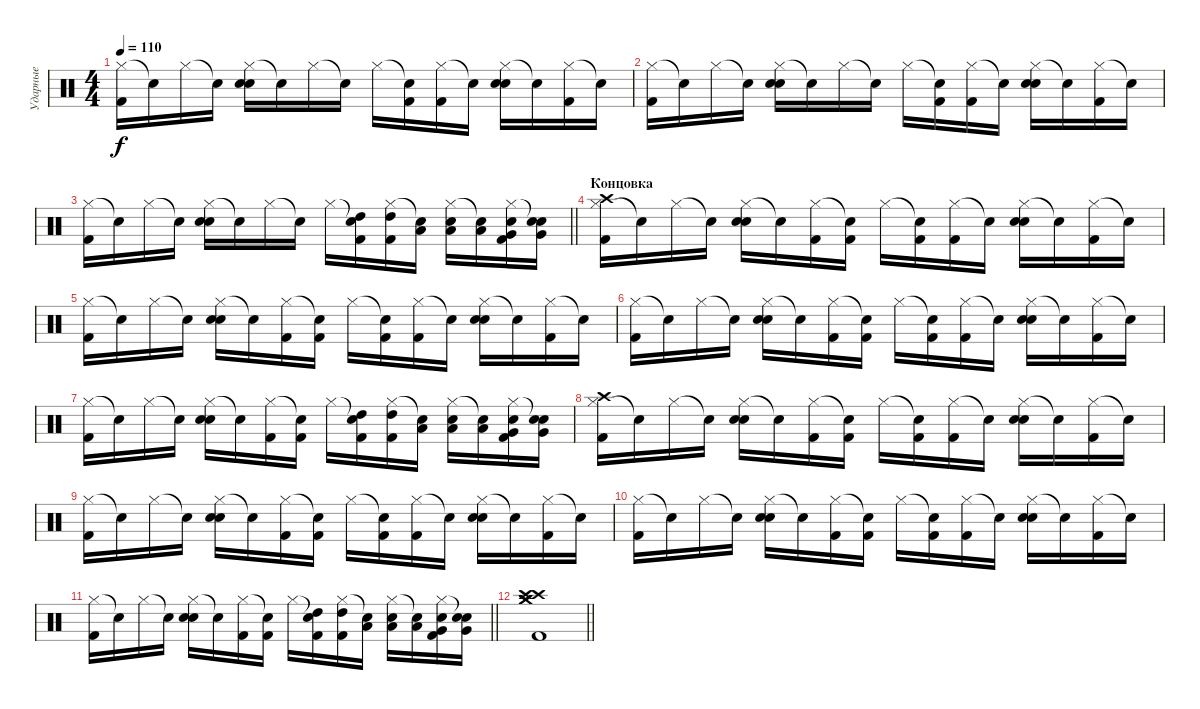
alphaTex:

\track ("Ударные" "Ударные") {instrument percussion}
\staff {score}
\articulation defaults
\ts (4 4)
\tempo 110
\clef neutral
\ks c
("Hi-Hat (closed)" "Kick (hit) 2").16{dy f} "Snare (hit)"{t}.16 "Hi-Hat (closed)".16 "Snare (hit)"{t}.16 ("Hi-Hat (closed)" "Snare (hit) 2" "Electric Snare (hit)").16 "Snare (hit)"{t}.16 "Hi-Hat (closed)".16 "Snare (hit)"{t}.16 "Hi-Hat (closed)".16 ("Snare (hit)"{t} "Kick (hit) 2").16 ("Hi-Hat (closed)" "Kick (hit) 2").16 "Snare (hit)"{t}.16 ("Hi-Hat (closed)" "Electric Snare (hit)" "Snare (hit) 2").16 "Snare (hit)"{t}.16 ("Hi-Hat (closed)" "Kick (hit) 2").16 "Snare (hit)"{t}.16 |
("Hi-Hat (closed)" "Kick (hit) 2").16 "Snare (hit)"{t}.16 "Hi-Hat (closed)".16 "Snare (hit)"{t}.16 ("Hi-Hat (closed)" "Snare (hit) 2" "Electric Snare (hit)").16 "Snare (hit)"{t}.16 "Hi-Hat (closed)".16 "Snare (hit)"{t}.16 "Hi-Hat (closed)".16 ("Snare (hit)"{t} "Kick (hit) 2").16 ("Hi-Hat (closed)" "Kick (hit) 2").16 "Snare (hit)"{t}.16 ("Hi-Hat (closed)" "Electric Snare (hit)" "Snare (hit) 2").16 "Snare (hit)"{t}.16 ("Hi-Hat (closed)" "Kick (hit) 2").16 "Snare (hit)"{t}.16 |
\barLineRight lightlight
("Hi-Hat (closed)" "Kick (hit) 2").16 "Snare (hit)"{t}.16 "Hi-Hat (closed)".16 "Snare (hit)"{t}.16 ("Hi-Hat (closed)" "Snare (hit) 2" "Electric Snare (hit)").16 "Snare (hit)"{t}.16 "Hi-Hat (closed)".16 "Snare (hit)"{t}.16 "Hi-Hat (closed)".16 ("Snare (hit)"{t} "High Tom (hit)" "Kick (hit) 2").16 ("Hi-Hat (closed)" "High Tom (hit)" "Kick (hit) 2").16 ("Snare (hit)"{t} "Low Tom (hit)").16 ("Hi-Hat (closed)" "Low Tom (hit)" "Snare (hit) 2").16 ("Snare (hit)"{t} "Low Tom (hit)").16 ("Hi-Hat (closed)" "Very Low Tom (hit)" "Electric Snare (hit)" "Kick (hit) 2").16 ("Snare (hit)"{t} "Very Low Tom (hit)" "Electric Snare (hit)").16 |
\section ("" "Концовка")
("Hi-Hat (closed)" "Crash high (hit)" "Kick (hit) 2").16 "Snare (hit)"{t}.16 "Hi-Hat (closed)".16 "Snare (hit)"{t}.16 ("Hi-Hat (closed)" "Snare (hit) 2" "Electric Snare (hit)").16 "Snare (hit)"{t}.16 ("Hi-Hat (closed)" "Kick (hit) 2").16 ("Snare (hit)"{t} "Kick (hit) 2").16 "Hi-Hat (closed)".16 ("Snare (hit)"{t} "Kick (hit) 2").16 ("Hi-Hat (closed)" "Kick (hit) 2").16 "Snare (hit)"{t}.16 ("Hi-Hat (closed)" "Electric Snare (hit)" "Snare (hit) 2").16 "Snare (hit)"{t}.16 ("Hi-Hat (closed)" "Kick (hit) 2").16 "Snare (hit)"{t}.16 |
("Hi-Hat (closed)" "Kick (hit) 2").16 "Snare (hit)"{t}.16 "Hi-Hat (closed)".16 "Snare (hit)"{t}.16 ("Hi-Hat (closed)" "Snare (hit) 2" "Electric Snare (hit)").16 "Snare (hit)"{t}.16 ("Hi-Hat (closed)" "Kick (hit) 2").16 ("Snare (hit)"{t} "Kick (hit) 2").16 "Hi-Hat (closed)".16 ("Snare (hit)"{t} "Kick (hit) 2").16 ("Hi-Hat (closed)" "Kick (hit) 2").16 "Snare (hit)"{t}.16 ("Hi-Hat (closed)" "Electric Snare (hit)" "Snare (hit) 2").16 "Snare (hit)"{t}.16 ("Hi-Hat (closed)" "Kick (hit) 2").16 "Snare (hit)"{t}.16 |
("Hi-Hat (closed)" "Kick (hit) 2").16 "Snare (hit)"{t}.16 "Hi-Hat (closed)".16 "Snare (hit)"{t}.16 ("Hi-Hat (closed)" "Snare (hit) 2" "Electric Snare (hit)").16 "Snare (hit)"{t}.16 ("Hi-Hat (closed)" "Kick (hit) 2").16 ("Snare (hit)"{t} "Kick (hit) 2").16 "Hi-Hat (closed)".16 ("Snare (hit)"{t} "Kick (hit) 2").16 ("Hi-Hat (closed)" "Kick (hit) 2").16 "Snare (hit)"{t}.16 ("Hi-Hat (closed)" "Electric Snare (hit)" "Snare (hit) 2").16 "Snare (hit)"{t}.16 ("Hi-Hat (closed)" "Kick (hit) 2").16 "Snare (hit)"{t}.16 |
("Hi-Hat (closed)" "Kick (hit) 2").16 "Snare (hit)"{t}.16 "Hi-Hat (closed)".16 "Snare (hit)"{t}.16 ("Hi-Hat (closed)" "Snare (hit) 2" "Electric Snare (hit)").16 "Snare (hit)"{t}.16 ("Hi-Hat (closed)" "Kick (hit) 2").16 ("Snare (hit)"{t} "Kick (hit) 2").16 "Hi-Hat (closed)".16 ("Snare (hit)"{t} "High Tom (hit)" "Kick (hit) 2").16 ("Hi-Hat (closed)" "High Tom (hit)" "Kick (hit) 2").16 ("Snare (hit)"{t} "Low Tom (hit)").16 ("Hi-Hat (closed)" "Low Tom (hit)" "Snare (hit) 2").16 ("Snare (hit)"{t} "Low Tom (hit)").16 ("Hi-Hat (closed)" "Very Low Tom (hit)" "Electric Snare (hit)" "Kick (hit) 2").16 ("Snare (hit)"{t} "Very Low Tom (hit)" "Electric Snare (hit)").16 |
("Hi-Hat (closed)" "Crash high (hit)" "Kick (hit) 2").16 "Snare (hit)"{t}.16 "Hi-Hat (closed)".16 "Snare (hit)"{t}.16 ("Hi-Hat (closed)" "Snare (hit) 2" "Electric Snare (hit)").16 "Snare (hit)"{t}.16 ("Hi-Hat (closed)" "Kick (hit) 2").16 ("Snare (hit)"{t} "Kick (hit) 2").16 "Hi-Hat (closed)".16 ("Snare (hit)"{t} "Kick (hit) 2").16 ("Hi-Hat (closed)" "Kick (hit) 2").16 "Snare (hit)"{t}.16 ("Hi-Hat (closed)" "Electric Snare (hit)" "Snare (hit) 2").16 "Snare (hit)"{t}.16 ("Hi-Hat (closed)" "Kick (hit) 2").16 "Snare (hit)"{t}.16 |
("Hi-Hat (closed)" "Kick (hit) 2").16 "Snare (hit)"{t}.16 "Hi-Hat (closed)".16 "Snare (hit)"{t}.16 ("Hi-Hat (closed)" "Snare (hit) 2" "Electric Snare (hit)").16 "Snare (hit)"{t}.16 ("Hi-Hat (closed)" "Kick (hit) 2").16 ("Snare (hit)"{t} "Kick (hit) 2").16 "Hi-Hat (closed)".16 ("Snare (hit)"{t} "Kick (hit) 2").16 ("Hi-Hat (closed)" "Kick (hit) 2").16 "Snare (hit)"{t}.16 ("Hi-Hat (closed)" "Electric Snare (hit)" "Snare (hit) 2").16 "Snare (hit)"{t}.16 ("Hi-Hat (closed)" "Kick (hit) 2").16 "Snare (hit)"{t}.16 |
("Hi-Hat (closed)" "Kick (hit) 2").16 "Snare (hit)"{t}.16 "Hi-Hat (closed)".16 "Snare (hit)"{t}.16 ("Hi-Hat (closed)" "Snare (hit) 2" "Electric Snare (hit)").16 "Snare (hit)"{t}.16 ("Hi-Hat (closed)" "Kick (hit) 2").16 ("Snare (hit)"{t} "Kick (hit) 2").16 "Hi-Hat (closed)".16 ("Snare (hit)"{t} "Kick (hit) 2").16 ("Hi-Hat (closed)" "Kick (hit) 2").16 "Snare (hit)"{t}.16 ("Hi-Hat (closed)" "Electric Snare (hit)" "Snare (hit) 2").16 "Snare (hit)"{t}.16 ("Hi-Hat (closed)" "Kick (hit) 2").16 "Snare (hit)"{t}.16 |
\barLineRight lightlight
("Hi-Hat (closed)" "Kick (hit) 2").16 "Snare (hit)"{t}.16 "Hi-Hat (closed)".16 "Snare (hit)"{t}.16 ("Hi-Hat (closed)" "Snare (hit) 2" "Electric Snare (hit)").16 "Snare (hit)"{t}.16 ("Hi-Hat (closed)" "Kick (hit) 2").16 ("Snare (hit)"{t} "Kick (hit) 2").16 "Hi-Hat (closed)".16 ("Snare (hit)"{t} "High Tom (hit)" "Kick (hit) 2").16 ("Hi-Hat (closed)" "High Tom (hit)" "Kick (hit) 2").16 ("Snare (hit)"{t} "Low Tom (hit)").16 ("Hi-Hat (closed)" "Low Tom (hit)" "Snare (hit) 2").16 ("Snare (hit)"{t} "Low Tom (hit)").16 ("Hi-Hat (closed)" "Very Low Tom (hit)" "Electric Snare (hit)" "Kick (hit) 2").16 ("Snare (hit)"{t} "Very Low Tom (hit)" "Electric Snare (hit)").16 |
\barLineRight lightlight
("Crash high (hit)" "Crash high (hit)" "Crash medium (hit)" "Crash medium (hit)" "Kick (hit) 2").1
